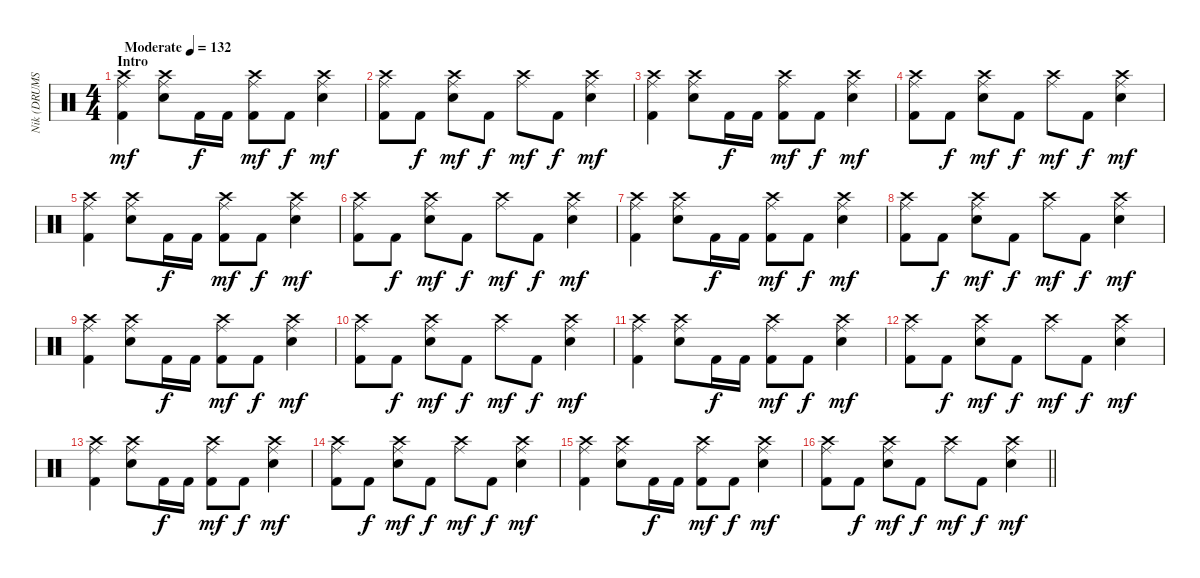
\track ("Nik (DRUMS)" "Nik (DRUMS") {instrument percussion}
\staff {score}
\articulation defaults
\ts (4 4)
\section ("" "Intro")
\tempo (132 "Moderate")
\clef neutral
\ks c
("Crash high (hit)" "Ride (middle)" "Kick (hit) 2").4{dy mf} ("Crash high (hit)" "Ride (middle)" "Electric Snare (hit)").8 "Kick (hit) 2".16{dy f} "Kick (hit) 2".16 ("Crash high (hit)" "Ride (middle)" "Kick (hit) 2").8{dy mf} "Kick (hit) 2".8{dy f} ("Crash high (hit)" "Ride (middle)" "Electric Snare (hit)").4{dy mf} |
("Crash high (hit)" "Ride (middle)" "Kick (hit) 2").8 "Kick (hit) 2".8{dy f} ("Crash high (hit)" "Ride (middle)" "Electric Snare (hit)").8{dy mf} "Kick (hit) 2".8{dy f} ("Crash high (hit)" "Ride (middle)").8{dy mf} "Kick (hit) 2".8{dy f} ("Crash high (hit)" "Ride (middle)" "Electric Snare (hit)").4{dy mf} |
("Crash high (hit)" "Ride (middle)" "Kick (hit) 2").4 ("Crash high (hit)" "Ride (middle)" "Electric Snare (hit)").8 "Kick (hit) 2".16{dy f} "Kick (hit) 2".16 ("Crash high (hit)" "Ride (middle)" "Kick (hit) 2").8{dy mf} "Kick (hit) 2".8{dy f} ("Crash high (hit)" "Ride (middle)" "Electric Snare (hit)").4{dy mf} |
("Crash high (hit)" "Ride (middle)" "Kick (hit) 2").8 "Kick (hit) 2".8{dy f} ("Crash high (hit)" "Ride (middle)" "Electric Snare (hit)").8{dy mf} "Kick (hit) 2".8{dy f} ("Crash high (hit)" "Ride (middle)").8{dy mf} "Kick (hit) 2".8{dy f} ("Crash high (hit)" "Ride (middle)" "Electric Snare (hit)").4{dy mf} |
("Crash high (hit)" "Ride (middle)" "Kick (hit) 2").4 ("Crash high (hit)" "Ride (middle)" "Electric Snare (hit)").8 "Kick (hit) 2".16{dy f} "Kick (hit) 2".16 ("Crash high (hit)" "Ride (middle)" "Kick (hit) 2").8{dy mf} "Kick (hit) 2".8{dy f} ("Crash high (hit)" "Ride (middle)" "Electric Snare (hit)").4{dy mf} |
("Crash high (hit)" "Ride (middle)" "Kick (hit) 2").8 "Kick (hit) 2".8{dy f} ("Crash high (hit)" "Ride (middle)" "Electric Snare (hit)").8{dy mf} "Kick (hit) 2".8{dy f} ("Crash high (hit)" "Ride (middle)").8{dy mf} "Kick (hit) 2".8{dy f} ("Crash high (hit)" "Ride (middle)" "Electric Snare (hit)").4{dy mf} |
("Crash high (hit)" "Ride (middle)" "Kick (hit) 2").4 ("Crash high (hit)" "Ride (middle)" "Electric Snare (hit)").8 "Kick (hit) 2".16{dy f} "Kick (hit) 2".16 ("Crash high (hit)" "Ride (middle)" "Kick (hit) 2").8{dy mf} "Kick (hit) 2".8{dy f} ("Crash high (hit)" "Ride (middle)" "Electric Snare (hit)").4{dy mf} |
("Crash high (hit)" "Ride (middle)" "Kick (hit) 2").8 "Kick (hit) 2".8{dy f} ("Crash high (hit)" "Ride (middle)" "Electric Snare (hit)").8{dy mf} "Kick (hit) 2".8{dy f} ("Crash high (hit)" "Ride (middle)").8{dy mf} "Kick (hit) 2".8{dy f} ("Crash high (hit)" "Ride (middle)" "Electric Snare (hit)").4{dy mf} |
("Crash high (hit)" "Ride (middle)" "Kick (hit) 2").4 ("Crash high (hit)" "Ride (middle)" "Electric Snare (hit)").8 "Kick (hit) 2".16{dy f} "Kick (hit) 2".16 ("Crash high (hit)" "Ride (middle)" "Kick (hit) 2").8{dy mf} "Kick (hit) 2".8{dy f} ("Crash high (hit)" "Ride (middle)" "Electric Snare (hit)").4{dy mf} |
("Crash high (hit)" "Ride (middle)" "Kick (hit) 2").8 "Kick (hit) 2".8{dy f} ("Crash high (hit)" "Ride (middle)" "Electric Snare (hit)").8{dy mf} "Kick (hit) 2".8{dy f} ("Crash high (hit)" "Ride (middle)").8{dy mf} "Kick (hit) 2".8{dy f} ("Crash high (hit)" "Ride (middle)" "Electric Snare (hit)").4{dy mf} |
("Crash high (hit)" "Ride (middle)" "Kick (hit) 2").4 ("Crash high (hit)" "Ride (middle)" "Electric Snare (hit)").8 "Kick (hit) 2".16{dy f} "Kick (hit) 2".16 ("Crash high (hit)" "Ride (middle)" "Kick (hit) 2").8{dy mf} "Kick (hit) 2".8{dy f} ("Crash high (hit)" "Ride (middle)" "Electric Snare (hit)").4{dy mf} |
("Crash high (hit)" "Ride (middle)" "Kick (hit) 2").8 "Kick (hit) 2".8{dy f} ("Crash high (hit)" "Ride (middle)" "Electric Snare (hit)").8{dy mf} "Kick (hit) 2".8{dy f} ("Crash high (hit)" "Ride (middle)").8{dy mf} "Kick (hit) 2".8{dy f} ("Crash high (hit)" "Ride (middle)" "Electric Snare (hit)").4{dy mf} |
("Crash high (hit)" "Ride (middle)" "Kick (hit) 2").4 ("Crash high (hit)" "Ride (middle)" "Electric Snare (hit)").8 "Kick (hit) 2".16{dy f} "Kick (hit) 2".16 ("Crash high (hit)" "Ride (middle)" "Kick (hit) 2").8{dy mf} "Kick (hit) 2".8{dy f} ("Crash high (hit)" "Ride (middle)" "Electric Snare (hit)").4{dy mf} |
("Crash high (hit)" "Ride (middle)" "Kick (hit) 2").8 "Kick (hit) 2".8{dy f} ("Crash high (hit)" "Ride (middle)" "Electric Snare (hit)").8{dy mf} "Kick (hit) 2".8{dy f} ("Crash high (hit)" "Ride (middle)").8{dy mf} "Kick (hit) 2".8{dy f} ("Crash high (hit)" "Ride (middle)" "Electric Snare (hit)").4{dy mf} |
("Crash high (hit)" "Ride (middle)" "Kick (hit) 2").4 ("Crash high (hit)" "Ride (middle)" "Electric Snare (hit)").8 "Kick (hit) 2".16{dy f} "Kick (hit) 2".16 ("Crash high (hit)" "Ride (middle)" "Kick (hit) 2").8{dy mf} "Kick (hit) 2".8{dy f} ("Crash high (hit)" "Ride (middle)" "Electric Snare (hit)").4{dy mf} |
\barLineRight lightlight
("Crash high (hit)" "Ride (middle)" "Kick (hit) 2").8 "Kick (hit) 2".8{dy f} ("Crash high (hit)" "Ride (middle)" "Electric Snare (hit)").8{dy mf} "Kick (hit) 2".8{dy f} ("Crash high (hit)" "Ride (middle)").8{dy mf} "Kick (hit) 2".8{dy f} ("Crash high (hit)" "Ride (middle)" "Electric Snare (hit)").4{dy mf}
